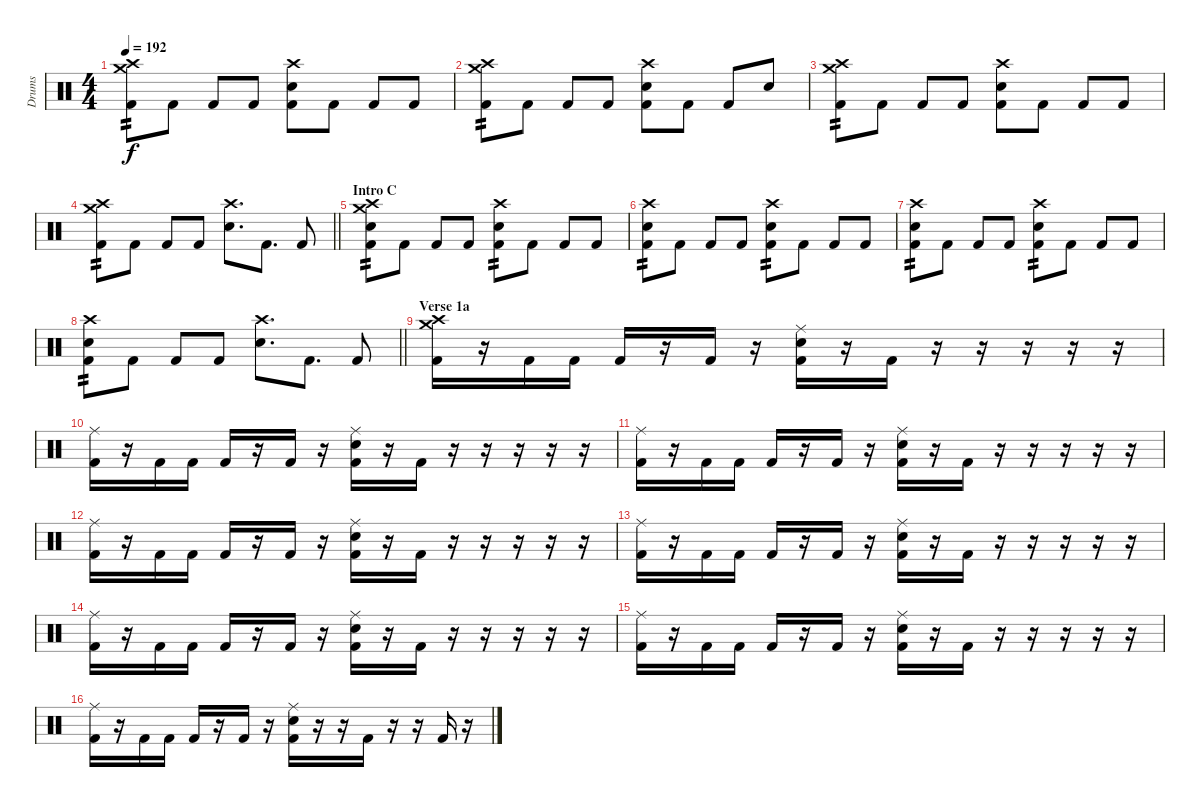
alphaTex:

\track ("Drums" "Drums") {instrument percussion}
\staff {score}
\articulation defaults
\ts (4 4)
\tempo 192
\clef neutral
\ks c
("Crash high (hit)" "Crash medium (hit)" "Kick (hit) 2").8{tp 2 dy f} "Kick (hit) 2".8 "Kick (hit) 2".8 "Kick (hit) 2".8 ("Crash high (hit)" "Snare (hit) 2" "Kick (hit) 2").8 "Kick (hit) 2".8 "Kick (hit) 2".8 "Kick (hit) 2".8 |
("Crash high (hit)" "Crash medium (hit)" "Kick (hit) 2").8{tp 2} "Kick (hit) 2".8 "Kick (hit) 2".8 "Kick (hit) 2".8 ("Crash high (hit)" "Snare (hit) 2" "Kick (hit) 2").8 "Kick (hit) 2".8 "Kick (hit) 2".8 "Snare (hit) 2".8 |
("Crash high (hit)" "Crash medium (hit)" "Kick (hit) 2").8{tp 2} "Kick (hit) 2".8 "Kick (hit) 2".8 "Kick (hit) 2".8 ("Crash high (hit)" "Snare (hit) 2" "Kick (hit) 2").8 "Kick (hit) 2".8 "Kick (hit) 2".8 "Kick (hit) 2".8 |
\barLineRight lightlight
("Crash high (hit)" "Crash medium (hit)" "Kick (hit) 2").8{tp 2} "Kick (hit) 2".8 "Kick (hit) 2".8 "Kick (hit) 2".8 ("Crash high (hit)" "Snare (hit) 2").8{d} "Kick (hit) 2".8{d} "Kick (hit) 2".8 |
\section ("" "Intro C")
("Crash high (hit)" "Crash medium (hit)" "Snare (hit) 2" "Kick (hit) 2").8{tp 2} "Kick (hit) 2".8 "Kick (hit) 2".8 "Kick (hit) 2".8 ("Crash high (hit)" "Snare (hit) 2" "Kick (hit) 2").8{tp 2} "Kick (hit) 2".8 "Kick (hit) 2".8 "Kick (hit) 2".8 |
("Crash high (hit)" "Snare (hit) 2" "Kick (hit) 2").8{tp 2} "Kick (hit) 2".8 "Kick (hit) 2".8 "Kick (hit) 2".8 ("Crash high (hit)" "Snare (hit) 2" "Kick (hit) 2").8{tp 2} "Kick (hit) 2".8 "Kick (hit) 2".8 "Kick (hit) 2".8 |
("Crash high (hit)" "Snare (hit) 2" "Kick (hit) 2").8{tp 2} "Kick (hit) 2".8 "Kick (hit) 2".8 "Kick (hit) 2".8 ("Crash high (hit)" "Snare (hit) 2" "Kick (hit) 2").8{tp 2} "Kick (hit) 2".8 "Kick (hit) 2".8 "Kick (hit) 2".8 |
\barLineRight lightlight
("Crash high (hit)" "Snare (hit) 2" "Kick (hit) 2").8{tp 2} "Kick (hit) 2".8 "Kick (hit) 2".8 "Kick (hit) 2".8 ("Crash high (hit)" "Snare (hit) 2").8{d} "Kick (hit) 2".8{d} "Kick (hit) 2".8 |
\section ("" "Verse 1a")
("Crash high (hit)" "Crash medium (hit)" "Kick (hit) 2").16 r.16 "Kick (hit) 2".16 "Kick (hit) 2".16 "Kick (hit) 2".16 r.16 "Kick (hit) 2".16 r.16 ("Ride (middle)" "Snare (hit) 2" "Kick (hit) 2").16 r.16 "Kick (hit) 2".16 r.16 r.16 r.16 r.16 r.16 |
("Ride (middle)" "Kick (hit) 2").16 r.16 "Kick (hit) 2".16 "Kick (hit) 2".16 "Kick (hit) 2".16 r.16 "Kick (hit) 2".16 r.16 ("Ride (middle)" "Snare (hit) 2" "Kick (hit) 2").16 r.16 "Kick (hit) 2".16 r.16 r.16 r.16 r.16 r.16 |
("Ride (middle)" "Kick (hit) 2").16 r.16 "Kick (hit) 2".16 "Kick (hit) 2".16 "Kick (hit) 2".16 r.16 "Kick (hit) 2".16 r.16 ("Ride (middle)" "Snare (hit) 2" "Kick (hit) 2").16 r.16 "Kick (hit) 2".16 r.16 r.16 r.16 r.16 r.16 |
("Ride (middle)" "Kick (hit) 2").16 r.16 "Kick (hit) 2".16 "Kick (hit) 2".16 "Kick (hit) 2".16 r.16 "Kick (hit) 2".16 r.16 ("Ride (middle)" "Snare (hit) 2" "Kick (hit) 2").16 r.16 "Kick (hit) 2".16 r.16 r.16 r.16 r.16 r.16 |
("Ride (middle)" "Kick (hit) 2").16 r.16 "Kick (hit) 2".16 "Kick (hit) 2".16 "Kick (hit) 2".16 r.16 "Kick (hit) 2".16 r.16 ("Ride (middle)" "Snare (hit) 2" "Kick (hit) 2").16 r.16 "Kick (hit) 2".16 r.16 r.16 r.16 r.16 r.16 |
("Ride (middle)" "Kick (hit) 2").16 r.16 "Kick (hit) 2".16 "Kick (hit) 2".16 "Kick (hit) 2".16 r.16 "Kick (hit) 2".16 r.16 ("Ride (middle)" "Snare (hit) 2" "Kick (hit) 2").16 r.16 "Kick (hit) 2".16 r.16 r.16 r.16 r.16 r.16 |
("Ride (middle)" "Kick (hit) 2").16 r.16 "Kick (hit) 2".16 "Kick (hit) 2".16 "Kick (hit) 2".16 r.16 "Kick (hit) 2".16 r.16 ("Ride (middle)" "Snare (hit) 2" "Kick (hit) 2").16 r.16 "Kick (hit) 2".16 r.16 r.16 r.16 r.16 r.16 |
("Ride (middle)" "Kick (hit) 2").16 r.16 "Kick (hit) 2".16 "Kick (hit) 2".16 "Kick (hit) 2".16 r.16 "Kick (hit) 2".16 r.16 ("Ride (middle)" "Snare (hit) 2" "Kick (hit) 2").16 r.16 r.16 "Kick (hit) 2".16 r.16 r.16 "Kick (hit) 2".16 r.16
